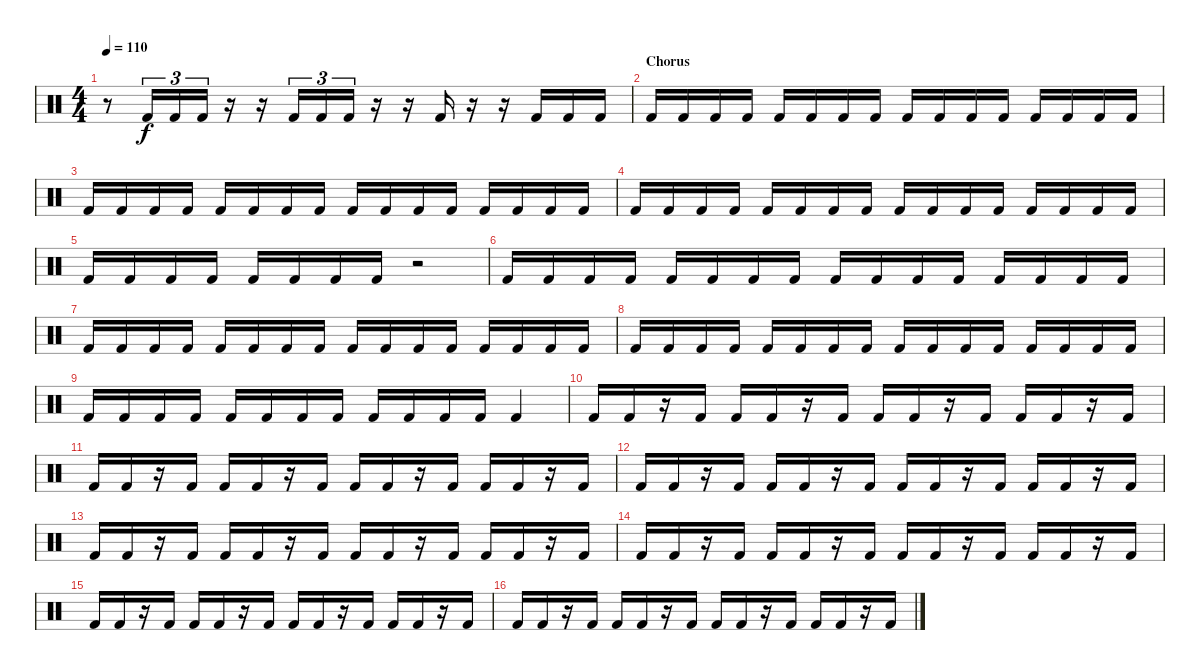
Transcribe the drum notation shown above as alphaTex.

\track "" {instrument percussion}
\staff {score}
\articulation defaults
\ts (4 4)
\tempo 110
\clef neutral
\ks c
r.8{dy f} "Kick (hit) 2".16{tu (3 2)} "Kick (hit) 2".16{tu (3 2)} "Kick (hit) 2".16{tu (3 2)} r.16 r.16 "Kick (hit) 2".16{tu (3 2)} "Kick (hit) 2".16{tu (3 2)} "Kick (hit) 2".16{tu (3 2)} r.16 r.16 "Kick (hit) 2".16 r.16 r.16 "Kick (hit) 2".16 "Kick (hit) 2".16 "Kick (hit) 2".16 |
\section ("" "Chorus")
"Kick (hit) 2".16 "Kick (hit) 2".16 "Kick (hit) 2".16 "Kick (hit) 2".16 "Kick (hit) 2".16 "Kick (hit) 2".16 "Kick (hit) 2".16 "Kick (hit) 2".16 "Kick (hit) 2".16 "Kick (hit) 2".16 "Kick (hit) 2".16 "Kick (hit) 2".16 "Kick (hit) 2".16 "Kick (hit) 2".16 "Kick (hit) 2".16 "Kick (hit) 2".16 |
"Kick (hit) 2".16 "Kick (hit) 2".16 "Kick (hit) 2".16 "Kick (hit) 2".16 "Kick (hit) 2".16 "Kick (hit) 2".16 "Kick (hit) 2".16 "Kick (hit) 2".16 "Kick (hit) 2".16 "Kick (hit) 2".16 "Kick (hit) 2".16 "Kick (hit) 2".16 "Kick (hit) 2".16 "Kick (hit) 2".16 "Kick (hit) 2".16 "Kick (hit) 2".16 |
"Kick (hit) 2".16 "Kick (hit) 2".16 "Kick (hit) 2".16 "Kick (hit) 2".16 "Kick (hit) 2".16 "Kick (hit) 2".16 "Kick (hit) 2".16 "Kick (hit) 2".16 "Kick (hit) 2".16 "Kick (hit) 2".16 "Kick (hit) 2".16 "Kick (hit) 2".16 "Kick (hit) 2".16 "Kick (hit) 2".16 "Kick (hit) 2".16 "Kick (hit) 2".16 |
"Kick (hit) 2".16 "Kick (hit) 2".16 "Kick (hit) 2".16 "Kick (hit) 2".16 "Kick (hit) 2".16 "Kick (hit) 2".16 "Kick (hit) 2".16 "Kick (hit) 2".16 r.2 |
"Kick (hit) 2".16 "Kick (hit) 2".16 "Kick (hit) 2".16 "Kick (hit) 2".16 "Kick (hit) 2".16 "Kick (hit) 2".16 "Kick (hit) 2".16 "Kick (hit) 2".16 "Kick (hit) 2".16 "Kick (hit) 2".16 "Kick (hit) 2".16 "Kick (hit) 2".16 "Kick (hit) 2".16 "Kick (hit) 2".16 "Kick (hit) 2".16 "Kick (hit) 2".16 |
"Kick (hit) 2".16 "Kick (hit) 2".16 "Kick (hit) 2".16 "Kick (hit) 2".16 "Kick (hit) 2".16 "Kick (hit) 2".16 "Kick (hit) 2".16 "Kick (hit) 2".16 "Kick (hit) 2".16 "Kick (hit) 2".16 "Kick (hit) 2".16 "Kick (hit) 2".16 "Kick (hit) 2".16 "Kick (hit) 2".16 "Kick (hit) 2".16 "Kick (hit) 2".16 |
"Kick (hit) 2".16 "Kick (hit) 2".16 "Kick (hit) 2".16 "Kick (hit) 2".16 "Kick (hit) 2".16 "Kick (hit) 2".16 "Kick (hit) 2".16 "Kick (hit) 2".16 "Kick (hit) 2".16 "Kick (hit) 2".16 "Kick (hit) 2".16 "Kick (hit) 2".16 "Kick (hit) 2".16 "Kick (hit) 2".16 "Kick (hit) 2".16 "Kick (hit) 2".16 |
"Kick (hit) 2".16 "Kick (hit) 2".16 "Kick (hit) 2".16 "Kick (hit) 2".16 "Kick (hit) 2".16 "Kick (hit) 2".16 "Kick (hit) 2".16 "Kick (hit) 2".16 "Kick (hit) 2".16 "Kick (hit) 2".16 "Kick (hit) 2".16 "Kick (hit) 2".16 "Kick (hit) 2".4 |
"Kick (hit) 2".16 "Kick (hit) 2".16 r.16 "Kick (hit) 2".16 "Kick (hit) 2".16 "Kick (hit) 2".16 r.16 "Kick (hit) 2".16 "Kick (hit) 2".16 "Kick (hit) 2".16 r.16 "Kick (hit) 2".16 "Kick (hit) 2".16 "Kick (hit) 2".16 r.16 "Kick (hit) 2".16 |
"Kick (hit) 2".16 "Kick (hit) 2".16 r.16 "Kick (hit) 2".16 "Kick (hit) 2".16 "Kick (hit) 2".16 r.16 "Kick (hit) 2".16 "Kick (hit) 2".16 "Kick (hit) 2".16 r.16 "Kick (hit) 2".16 "Kick (hit) 2".16 "Kick (hit) 2".16 r.16 "Kick (hit) 2".16 |
"Kick (hit) 2".16 "Kick (hit) 2".16 r.16 "Kick (hit) 2".16 "Kick (hit) 2".16 "Kick (hit) 2".16 r.16 "Kick (hit) 2".16 "Kick (hit) 2".16 "Kick (hit) 2".16 r.16 "Kick (hit) 2".16 "Kick (hit) 2".16 "Kick (hit) 2".16 r.16 "Kick (hit) 2".16 |
"Kick (hit) 2".16 "Kick (hit) 2".16 r.16 "Kick (hit) 2".16 "Kick (hit) 2".16 "Kick (hit) 2".16 r.16 "Kick (hit) 2".16 "Kick (hit) 2".16 "Kick (hit) 2".16 r.16 "Kick (hit) 2".16 "Kick (hit) 2".16 "Kick (hit) 2".16 r.16 "Kick (hit) 2".16 |
"Kick (hit) 2".16 "Kick (hit) 2".16 r.16 "Kick (hit) 2".16 "Kick (hit) 2".16 "Kick (hit) 2".16 r.16 "Kick (hit) 2".16 "Kick (hit) 2".16 "Kick (hit) 2".16 r.16 "Kick (hit) 2".16 "Kick (hit) 2".16 "Kick (hit) 2".16 r.16 "Kick (hit) 2".16 |
"Kick (hit) 2".16 "Kick (hit) 2".16 r.16 "Kick (hit) 2".16 "Kick (hit) 2".16 "Kick (hit) 2".16 r.16 "Kick (hit) 2".16 "Kick (hit) 2".16 "Kick (hit) 2".16 r.16 "Kick (hit) 2".16 "Kick (hit) 2".16 "Kick (hit) 2".16 r.16 "Kick (hit) 2".16 |
"Kick (hit) 2".16 "Kick (hit) 2".16 r.16 "Kick (hit) 2".16 "Kick (hit) 2".16 "Kick (hit) 2".16 r.16 "Kick (hit) 2".16 "Kick (hit) 2".16 "Kick (hit) 2".16 r.16 "Kick (hit) 2".16 "Kick (hit) 2".16 "Kick (hit) 2".16 r.16 "Kick (hit) 2".16
